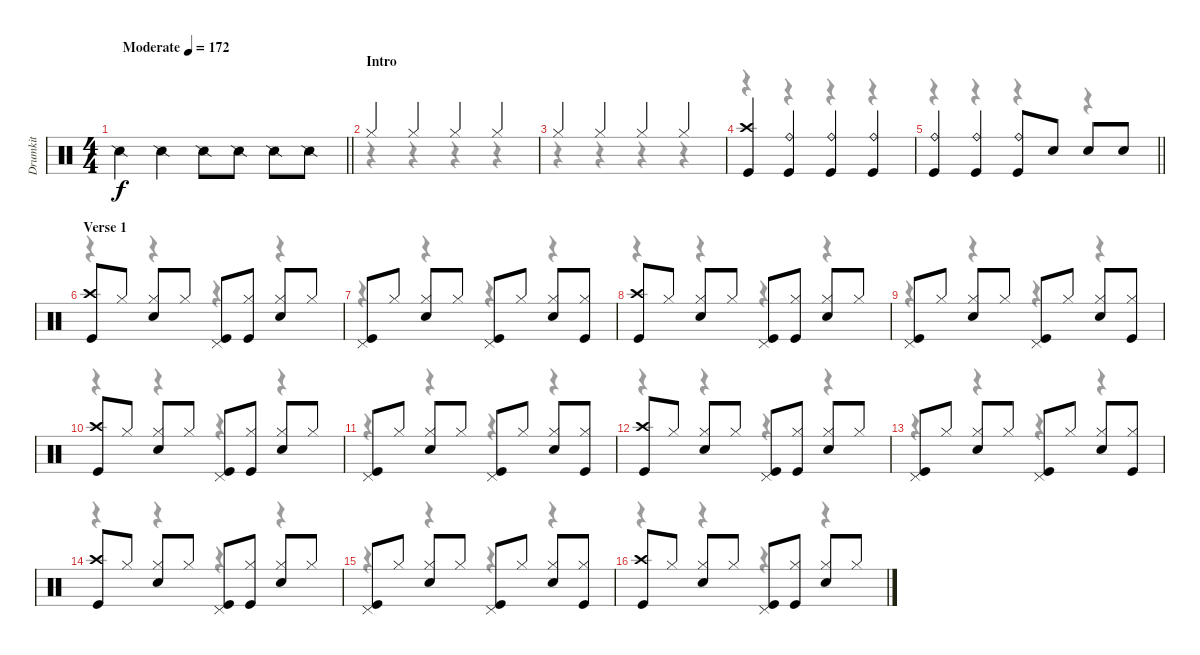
\track ("Drumkit" "Drumkit") {instrument percussion}
\staff {score}
\articulation defaults
\voice
\ts (4 4)
\tempo (172 "Moderate")
\clef neutral
\barLineRight lightlight
\ks c "Snare (side stick) 2".4{dy f} "Snare (side stick) 2".4 "Snare (side stick) 2".8 "Snare (side stick) 2".8 "Snare (side stick) 2".8 "Snare (side stick) 2".8
|
\section ("" "Intro")
"Hi-Hat (closed)".4 "Hi-Hat (closed)".4 "Hi-Hat (closed)".4 "Hi-Hat (closed)".4 |
"Hi-Hat (closed)".4 "Hi-Hat (closed)".4 "Hi-Hat (closed)".4 "Hi-Hat (closed)".4 |
("Crash high (hit)" "Kick (hit)").4 ("Ride (bell)" "Kick (hit)").4 ("Ride (bell)" "Kick (hit)").4 ("Ride (bell)" "Kick (hit)").4 |
\barLineRight lightlight
("Ride (bell)" "Kick (hit)").4 ("Ride (bell)" "Kick (hit)").4 ("Ride (bell)" "Kick (hit)").8 "Snare (hit) 2".8 "Snare (hit) 2".8 "Snare (hit) 2".8 |
\section ("" "Verse 1")
("Crash high (hit)" "Kick (hit)").8 "Hi-Hat (closed)".8 ("Hi-Hat (closed)" "Snare (hit) 2").8 "Hi-Hat (closed)".8 ("Pedal Hi-Hat (hit)" "Kick (hit)").8 ("Hi-Hat (closed)" "Kick (hit)").8 ("Hi-Hat (closed)" "Snare (hit) 2").8 "Hi-Hat (closed)".8 |
("Pedal Hi-Hat (hit)" "Kick (hit)").8 "Hi-Hat (closed)".8 ("Hi-Hat (closed)" "Snare (hit) 2").8 "Hi-Hat (closed)".8 ("Pedal Hi-Hat (hit)" "Kick (hit)").8 "Hi-Hat (closed)".8 ("Hi-Hat (closed)" "Snare (hit) 2").8 ("Hi-Hat (closed)" "Kick (hit)").8 |
("Crash high (hit)" "Kick (hit)").8 "Hi-Hat (closed)".8 ("Hi-Hat (closed)" "Snare (hit) 2").8 "Hi-Hat (closed)".8 ("Pedal Hi-Hat (hit)" "Kick (hit)").8 ("Hi-Hat (closed)" "Kick (hit)").8 ("Hi-Hat (closed)" "Snare (hit) 2").8 "Hi-Hat (closed)".8 |
("Pedal Hi-Hat (hit)" "Kick (hit)").8 "Hi-Hat (closed)".8 ("Hi-Hat (closed)" "Snare (hit) 2").8 "Hi-Hat (closed)".8 ("Pedal Hi-Hat (hit)" "Kick (hit)").8 "Hi-Hat (closed)".8 ("Hi-Hat (closed)" "Snare (hit) 2").8 ("Hi-Hat (closed)" "Kick (hit)").8 |
("Crash high (hit)" "Kick (hit)").8 "Hi-Hat (closed)".8 ("Hi-Hat (closed)" "Snare (hit) 2").8 "Hi-Hat (closed)".8 ("Pedal Hi-Hat (hit)" "Kick (hit)").8 ("Hi-Hat (closed)" "Kick (hit)").8 ("Hi-Hat (closed)" "Snare (hit) 2").8 "Hi-Hat (closed)".8 |
("Pedal Hi-Hat (hit)" "Kick (hit)").8 "Hi-Hat (closed)".8 ("Hi-Hat (closed)" "Snare (hit) 2").8 "Hi-Hat (closed)".8 ("Pedal Hi-Hat (hit)" "Kick (hit)").8 "Hi-Hat (closed)".8 ("Hi-Hat (closed)" "Snare (hit) 2").8 ("Hi-Hat (closed)" "Kick (hit)").8 |
("Crash high (hit)" "Kick (hit)").8 "Hi-Hat (closed)".8 ("Hi-Hat (closed)" "Snare (hit) 2").8 "Hi-Hat (closed)".8 ("Pedal Hi-Hat (hit)" "Kick (hit)").8 ("Hi-Hat (closed)" "Kick (hit)").8 ("Hi-Hat (closed)" "Snare (hit) 2").8 "Hi-Hat (closed)".8 |
("Pedal Hi-Hat (hit)" "Kick (hit)").8 "Hi-Hat (closed)".8 ("Hi-Hat (closed)" "Snare (hit) 2").8 "Hi-Hat (closed)".8 ("Pedal Hi-Hat (hit)" "Kick (hit)").8 "Hi-Hat (closed)".8 ("Hi-Hat (closed)" "Snare (hit) 2").8 ("Hi-Hat (closed)" "Kick (hit)").8 |
("Crash high (hit)" "Kick (hit)").8 "Hi-Hat (closed)".8 ("Hi-Hat (closed)" "Snare (hit) 2").8 "Hi-Hat (closed)".8 ("Pedal Hi-Hat (hit)" "Kick (hit)").8 ("Hi-Hat (closed)" "Kick (hit)").8 ("Hi-Hat (closed)" "Snare (hit) 2").8 "Hi-Hat (closed)".8 |
("Pedal Hi-Hat (hit)" "Kick (hit)").8 "Hi-Hat (closed)".8 ("Hi-Hat (closed)" "Snare (hit) 2").8 "Hi-Hat (closed)".8 ("Pedal Hi-Hat (hit)" "Kick (hit)").8 "Hi-Hat (closed)".8 ("Hi-Hat (closed)" "Snare (hit) 2").8 ("Hi-Hat (closed)" "Kick (hit)").8 |
("Crash high (hit)" "Kick (hit)").8 "Hi-Hat (closed)".8 ("Hi-Hat (closed)" "Snare (hit) 2").8 "Hi-Hat (closed)".8 ("Pedal Hi-Hat (hit)" "Kick (hit)").8 ("Hi-Hat (closed)" "Kick (hit)").8 ("Hi-Hat (closed)" "Snare (hit) 2").8 "Hi-Hat (closed)".8
\voice
\clef neutral
\ottava regular
\simile none
\barLineRight lightlight
\ks c
|
r.4 r.4 r.4 r.4 |
r.4 r.4 r.4 r.4 |
r.4 r.4 r.4 r.4 |
\barLineRight lightlight
r.4 r.4 r.4 r.4 |
r.4 r.4 r.4 r.4 |
r.4 r.4 r.4 r.4 |
r.4 r.4 r.4 r.4 |
r.4 r.4 r.4 r.4 |
r.4 r.4 r.4 r.4 |
r.4 r.4 r.4 r.4 |
r.4 r.4 r.4 r.4 |
r.4 r.4 r.4 r.4 |
r.4 r.4 r.4 r.4 |
r.4 r.4 r.4 r.4 |
r.4 r.4 r.4 r.4
